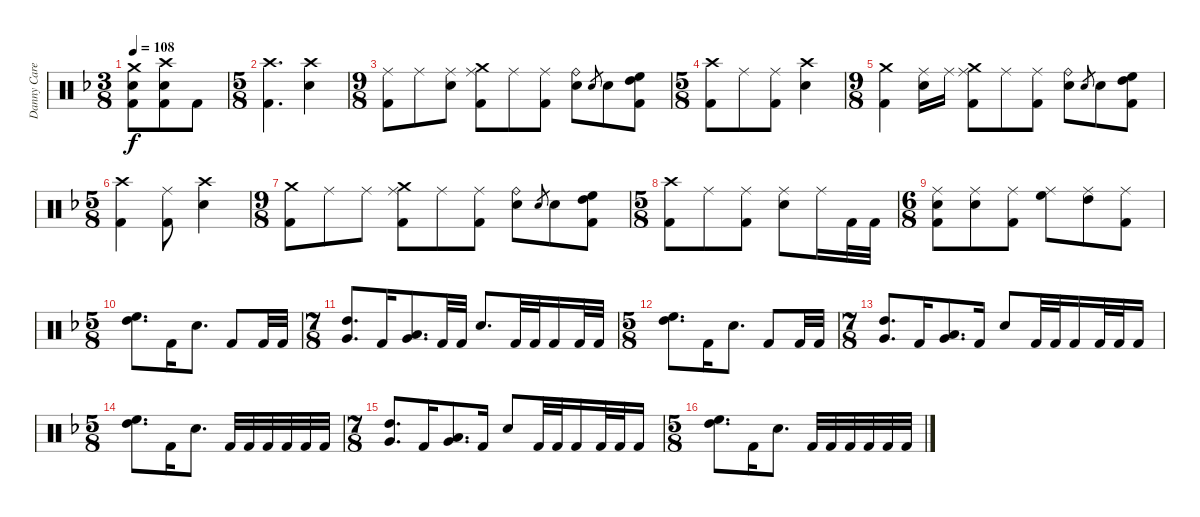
\track ("Danny Carey" "Danny Care") {instrument percussion}
\staff {score}
\articulation defaults
\ts (3 8)
\tempo 108
\clef neutral
\ks dminor
("Crash medium (hit)" "Electric Snare (hit)" "Kick (hit) 2").8{dy f} ("Crash high (hit)" "Electric Snare (hit)" "Kick (hit) 2").8 "Kick (hit) 2".8 |
\ts (5 8)
("Crash high (hit)" "Kick (hit) 2").4{d} ("Crash high (hit)" "Electric Snare (hit)").4 |
\ts (9 8)
("Ride (middle)" "Kick (hit) 2").8 "Ride (middle)".8 ("Ride (middle)" "Electric Snare (hit)").8 ("Crash medium (hit)" "Ride (middle)" "Kick (hit) 2").8 "Ride (middle)".8 ("Ride (middle)" "Kick (hit) 2").8 ("Ride (bell)" "Electric Snare (hit)").8 "Electric Snare (hit)".8{gr} "Electric Snare (hit)".8 ("High Floor Tom (hit)" "High Tom (hit)" "Kick (hit) 2").8 |
\ts (5 8)
("Crash high (hit)" "Kick (hit) 2").8 "Ride (middle)".8 ("Ride (middle)" "Kick (hit) 2").8 ("Crash high (hit)" "Electric Snare (hit)").4 |
\ts (9 8)
("Crash medium (hit)" "Kick (hit) 2").4 ("Ride (middle)" "Electric Snare (hit)").16 "Ride (middle)".16 ("Crash medium (hit)" "Ride (middle)" "Kick (hit) 2").8 "Ride (middle)".8 ("Ride (middle)" "Kick (hit) 2").8 ("Ride (bell)" "Electric Snare (hit)").8 "Electric Snare (hit)".8{gr} "Electric Snare (hit)".8 ("High Floor Tom (hit)" "High Tom (hit)" "Kick (hit) 2").8 |
\ts (5 8)
("Crash high (hit)" "Kick (hit) 2").4 ("Ride (middle)" "Kick (hit) 2").8 ("Crash high (hit)" "Electric Snare (hit)").4 |
\ts (9 8)
("Crash medium (hit)" "Kick (hit) 2").8 "Ride (middle)".8 "Ride (middle)".8 ("Crash medium (hit)" "Ride (middle)" "Kick (hit) 2").8 "Ride (middle)".8 ("Ride (middle)" "Kick (hit) 2").8 ("Ride (bell)" "Electric Snare (hit)").8 "Electric Snare (hit)".8{gr} "Electric Snare (hit)".8 ("High Floor Tom (hit)" "High Tom (hit)" "Kick (hit) 2").8 |
\ts (5 8)
("Crash high (hit)" "Kick (hit) 2").8 "Ride (middle)".8 ("Ride (middle)" "Kick (hit) 2").8 ("Ride (middle)" "Electric Snare (hit)").8 "Ride (middle)".16 "Kick (hit) 2".32 "Kick (hit) 2".32 |
\ts (6 8)
("Ride (middle)" "Electric Snare (hit)" "Kick (hit) 2").8 ("Ride (middle)" "Electric Snare (hit)").8 ("Ride (middle)" "Kick (hit) 2").8 ("Ride (middle)" "High Floor Tom (hit)").8 ("Ride (middle)" "High Tom (hit)").8 ("Ride (middle)" "Kick (hit) 2").8 |
\ts (5 8)
("High Floor Tom (hit)" "High Tom (hit)").8{d} "Kick (hit) 2".16 "Electric Snare (hit)".8{d} "Kick (hit) 2".8 "Kick (hit) 2".32 "Kick (hit) 2".32 |
\ts (7 8)
("High Tom (hit)" "Very Low Tom (hit)").8{d} "Kick (hit) 2".16 ("Very Low Tom (hit)" "Low Floor Tom (hit)").8{d} "Kick (hit) 2".32 "Kick (hit) 2".32 "Electric Snare (hit)".8{d} "Kick (hit) 2".32 "Kick (hit) 2".32 "Kick (hit) 2".16 "Kick (hit) 2".32 "Kick (hit) 2".32 |
\ts (5 8)
("High Floor Tom (hit)" "High Tom (hit)").8{d} "Kick (hit) 2".16 "Electric Snare (hit)".8{d} "Kick (hit) 2".8 "Kick (hit) 2".32 "Kick (hit) 2".32 |
\ts (7 8)
("High Tom (hit)" "Very Low Tom (hit)").8{d} "Kick (hit) 2".16 ("Very Low Tom (hit)" "Low Floor Tom (hit)").8{d} "Kick (hit) 2".16 "Electric Snare (hit)".8 "Kick (hit) 2".32 "Kick (hit) 2".32 "Kick (hit) 2".16 "Kick (hit) 2".32 "Kick (hit) 2".32 "Kick (hit) 2".16 |
\ts (5 8)
("High Floor Tom (hit)" "High Tom (hit)").8{d} "Kick (hit) 2".16 "Electric Snare (hit)".8{d} "Kick (hit) 2".32 "Kick (hit) 2".32 "Kick (hit) 2".32 "Kick (hit) 2".32 "Kick (hit) 2".32 "Kick (hit) 2".32 |
\ts (7 8)
("High Tom (hit)" "Very Low Tom (hit)").8{d} "Kick (hit) 2".16 ("Very Low Tom (hit)" "Low Floor Tom (hit)").8{d} "Kick (hit) 2".16 "Electric Snare (hit)".8 "Kick (hit) 2".32 "Kick (hit) 2".32 "Kick (hit) 2".16 "Kick (hit) 2".32 "Kick (hit) 2".32 "Kick (hit) 2".16 |
\ts (5 8)
("High Floor Tom (hit)" "High Tom (hit)").8{d} "Kick (hit) 2".16 "Electric Snare (hit)".8{d} "Kick (hit) 2".32 "Kick (hit) 2".32 "Kick (hit) 2".32 "Kick (hit) 2".32 "Kick (hit) 2".32 "Kick (hit) 2".32
